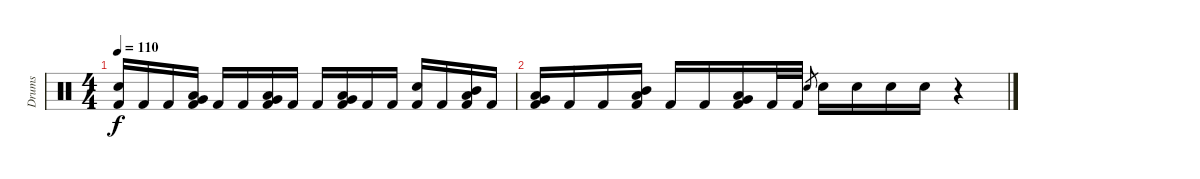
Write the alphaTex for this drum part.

\track ("Drums" "Drums") {instrument percussion}
\staff {score}
\articulation defaults
\ts (4 4)
\tempo 110
\clef neutral
\ks c
("Electric Snare (hit)" "Kick (hit) 2").16{dy f} "Kick (hit) 2".16 "Kick (hit) 2".16 ("Very Low Tom (hit)" "Low Tom (hit)" "Kick (hit) 2").16 "Kick (hit) 2".16 "Kick (hit) 2".16 ("Low Floor Tom (hit)" "Very Low Tom (hit)" "Kick (hit) 2").16 "Kick (hit) 2".16 "Kick (hit) 2".16 ("Very Low Tom (hit)" "Low Tom (hit)" "Kick (hit) 2").16 "Kick (hit) 2".16 "Kick (hit) 2".16 ("Electric Snare (hit)" "Kick (hit) 2").16 "Kick (hit) 2".16 ("Low Tom (hit)" "Mid Tom (hit)" "Kick (hit) 2").16 "Kick (hit) 2".16 |
("Very Low Tom (hit)" "Low Tom (hit)" "Kick (hit) 2").16 "Kick (hit) 2".16 "Kick (hit) 2".16 ("Low Tom (hit)" "Mid Tom (hit)" "Kick (hit) 2").16 "Kick (hit) 2".16 "Kick (hit) 2".16 ("Very Low Tom (hit)" "Low Tom (hit)" "Kick (hit) 2").16 "Kick (hit) 2".32 "Kick (hit) 2".32 "Electric Snare (hit)".8{gr} "Electric Snare (hit)".16 "Electric Snare (hit)".16 "Electric Snare (hit)".16 "Electric Snare (hit)".16 r.4
